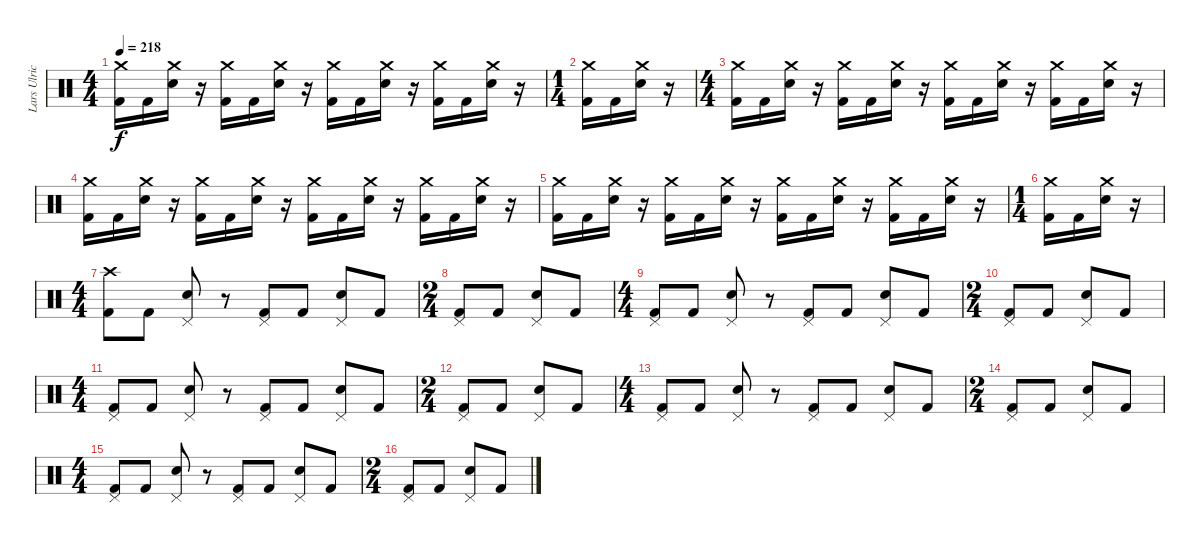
\track ("Lars Ulrich" "Lars Ulric") {instrument percussion}
\staff {score}
\articulation defaults
\ts (4 4)
\tempo 218
\clef neutral
\ks c
("Crash medium (hit)" "Kick (hit) 2").16{dy f} "Kick (hit) 2".16 ("Crash medium (hit)" "Electric Snare (hit)").16 r.16 ("Crash medium (hit)" "Kick (hit) 2").16 "Kick (hit) 2".16 ("Crash medium (hit)" "Electric Snare (hit)").16 r.16 ("Crash medium (hit)" "Kick (hit) 2").16 "Kick (hit) 2".16 ("Crash medium (hit)" "Electric Snare (hit)").16 r.16 ("Crash medium (hit)" "Kick (hit) 2").16 "Kick (hit) 2".16 ("Crash medium (hit)" "Electric Snare (hit)").16 r.16 |
\ts (1 4)
("Crash medium (hit)" "Kick (hit) 2").16 "Kick (hit) 2".16 ("Crash medium (hit)" "Electric Snare (hit)").16 r.16 |
\ts (4 4)
("Crash medium (hit)" "Kick (hit) 2").16 "Kick (hit) 2".16 ("Crash medium (hit)" "Electric Snare (hit)").16 r.16 ("Crash medium (hit)" "Kick (hit) 2").16 "Kick (hit) 2".16 ("Crash medium (hit)" "Electric Snare (hit)").16 r.16 ("Crash medium (hit)" "Kick (hit) 2").16 "Kick (hit) 2".16 ("Crash medium (hit)" "Electric Snare (hit)").16 r.16 ("Crash medium (hit)" "Kick (hit) 2").16 "Kick (hit) 2".16 ("Crash medium (hit)" "Electric Snare (hit)").16 r.16 |
("Crash medium (hit)" "Kick (hit) 2").16 "Kick (hit) 2".16 ("Crash medium (hit)" "Electric Snare (hit)").16 r.16 ("Crash medium (hit)" "Kick (hit) 2").16 "Kick (hit) 2".16 ("Crash medium (hit)" "Electric Snare (hit)").16 r.16 ("Crash medium (hit)" "Kick (hit) 2").16 "Kick (hit) 2".16 ("Crash medium (hit)" "Electric Snare (hit)").16 r.16 ("Crash medium (hit)" "Kick (hit) 2").16 "Kick (hit) 2".16 ("Crash medium (hit)" "Electric Snare (hit)").16 r.16 |
("Crash medium (hit)" "Kick (hit) 2").16 "Kick (hit) 2".16 ("Crash medium (hit)" "Electric Snare (hit)").16 r.16 ("Crash medium (hit)" "Kick (hit) 2").16 "Kick (hit) 2".16 ("Crash medium (hit)" "Electric Snare (hit)").16 r.16 ("Crash medium (hit)" "Kick (hit) 2").16 "Kick (hit) 2".16 ("Crash medium (hit)" "Electric Snare (hit)").16 r.16 ("Crash medium (hit)" "Kick (hit) 2").16 "Kick (hit) 2".16 ("Crash medium (hit)" "Electric Snare (hit)").16 r.16 |
\ts (1 4)
("Crash medium (hit)" "Kick (hit) 2").16 "Kick (hit) 2".16 ("Crash medium (hit)" "Electric Snare (hit)").16 r.16 |
\ts (4 4)
("Crash high (hit)" "Kick (hit) 2").8 "Kick (hit) 2".8 ("Pedal Hi-Hat (hit)" "Electric Snare (hit)").8 r.8 ("Pedal Hi-Hat (hit)" "Kick (hit) 2").8 "Kick (hit) 2".8 ("Pedal Hi-Hat (hit)" "Electric Snare (hit)").8 "Kick (hit) 2".8 |
\ts (2 4)
("Pedal Hi-Hat (hit)" "Kick (hit) 2").8 "Kick (hit) 2".8 ("Pedal Hi-Hat (hit)" "Electric Snare (hit)").8 "Kick (hit) 2".8 |
\ts (4 4)
("Pedal Hi-Hat (hit)" "Kick (hit) 2").8 "Kick (hit) 2".8 ("Pedal Hi-Hat (hit)" "Electric Snare (hit)").8 r.8 ("Pedal Hi-Hat (hit)" "Kick (hit) 2").8 "Kick (hit) 2".8 ("Pedal Hi-Hat (hit)" "Electric Snare (hit)").8 "Kick (hit) 2".8 |
\ts (2 4)
("Pedal Hi-Hat (hit)" "Kick (hit) 2").8 "Kick (hit) 2".8 ("Pedal Hi-Hat (hit)" "Electric Snare (hit)").8 "Kick (hit) 2".8 |
\ts (4 4)
("Pedal Hi-Hat (hit)" "Kick (hit) 2").8 "Kick (hit) 2".8 ("Pedal Hi-Hat (hit)" "Electric Snare (hit)").8 r.8 ("Pedal Hi-Hat (hit)" "Kick (hit) 2").8 "Kick (hit) 2".8 ("Pedal Hi-Hat (hit)" "Electric Snare (hit)").8 "Kick (hit) 2".8 |
\ts (2 4)
("Pedal Hi-Hat (hit)" "Kick (hit) 2").8 "Kick (hit) 2".8 ("Pedal Hi-Hat (hit)" "Electric Snare (hit)").8 "Kick (hit) 2".8 |
\ts (4 4)
("Pedal Hi-Hat (hit)" "Kick (hit) 2").8 "Kick (hit) 2".8 ("Pedal Hi-Hat (hit)" "Electric Snare (hit)").8 r.8 ("Pedal Hi-Hat (hit)" "Kick (hit) 2").8 "Kick (hit) 2".8 ("Pedal Hi-Hat (hit)" "Electric Snare (hit)").8 "Kick (hit) 2".8 |
\ts (2 4)
("Pedal Hi-Hat (hit)" "Kick (hit) 2").8 "Kick (hit) 2".8 ("Pedal Hi-Hat (hit)" "Electric Snare (hit)").8 "Kick (hit) 2".8 |
\ts (4 4)
("Pedal Hi-Hat (hit)" "Kick (hit) 2").8 "Kick (hit) 2".8 ("Pedal Hi-Hat (hit)" "Electric Snare (hit)").8 r.8 ("Pedal Hi-Hat (hit)" "Kick (hit) 2").8 "Kick (hit) 2".8 ("Pedal Hi-Hat (hit)" "Electric Snare (hit)").8 "Kick (hit) 2".8 |
\ts (2 4)
("Pedal Hi-Hat (hit)" "Kick (hit) 2").8 "Kick (hit) 2".8 ("Pedal Hi-Hat (hit)" "Electric Snare (hit)").8 "Kick (hit) 2".8
